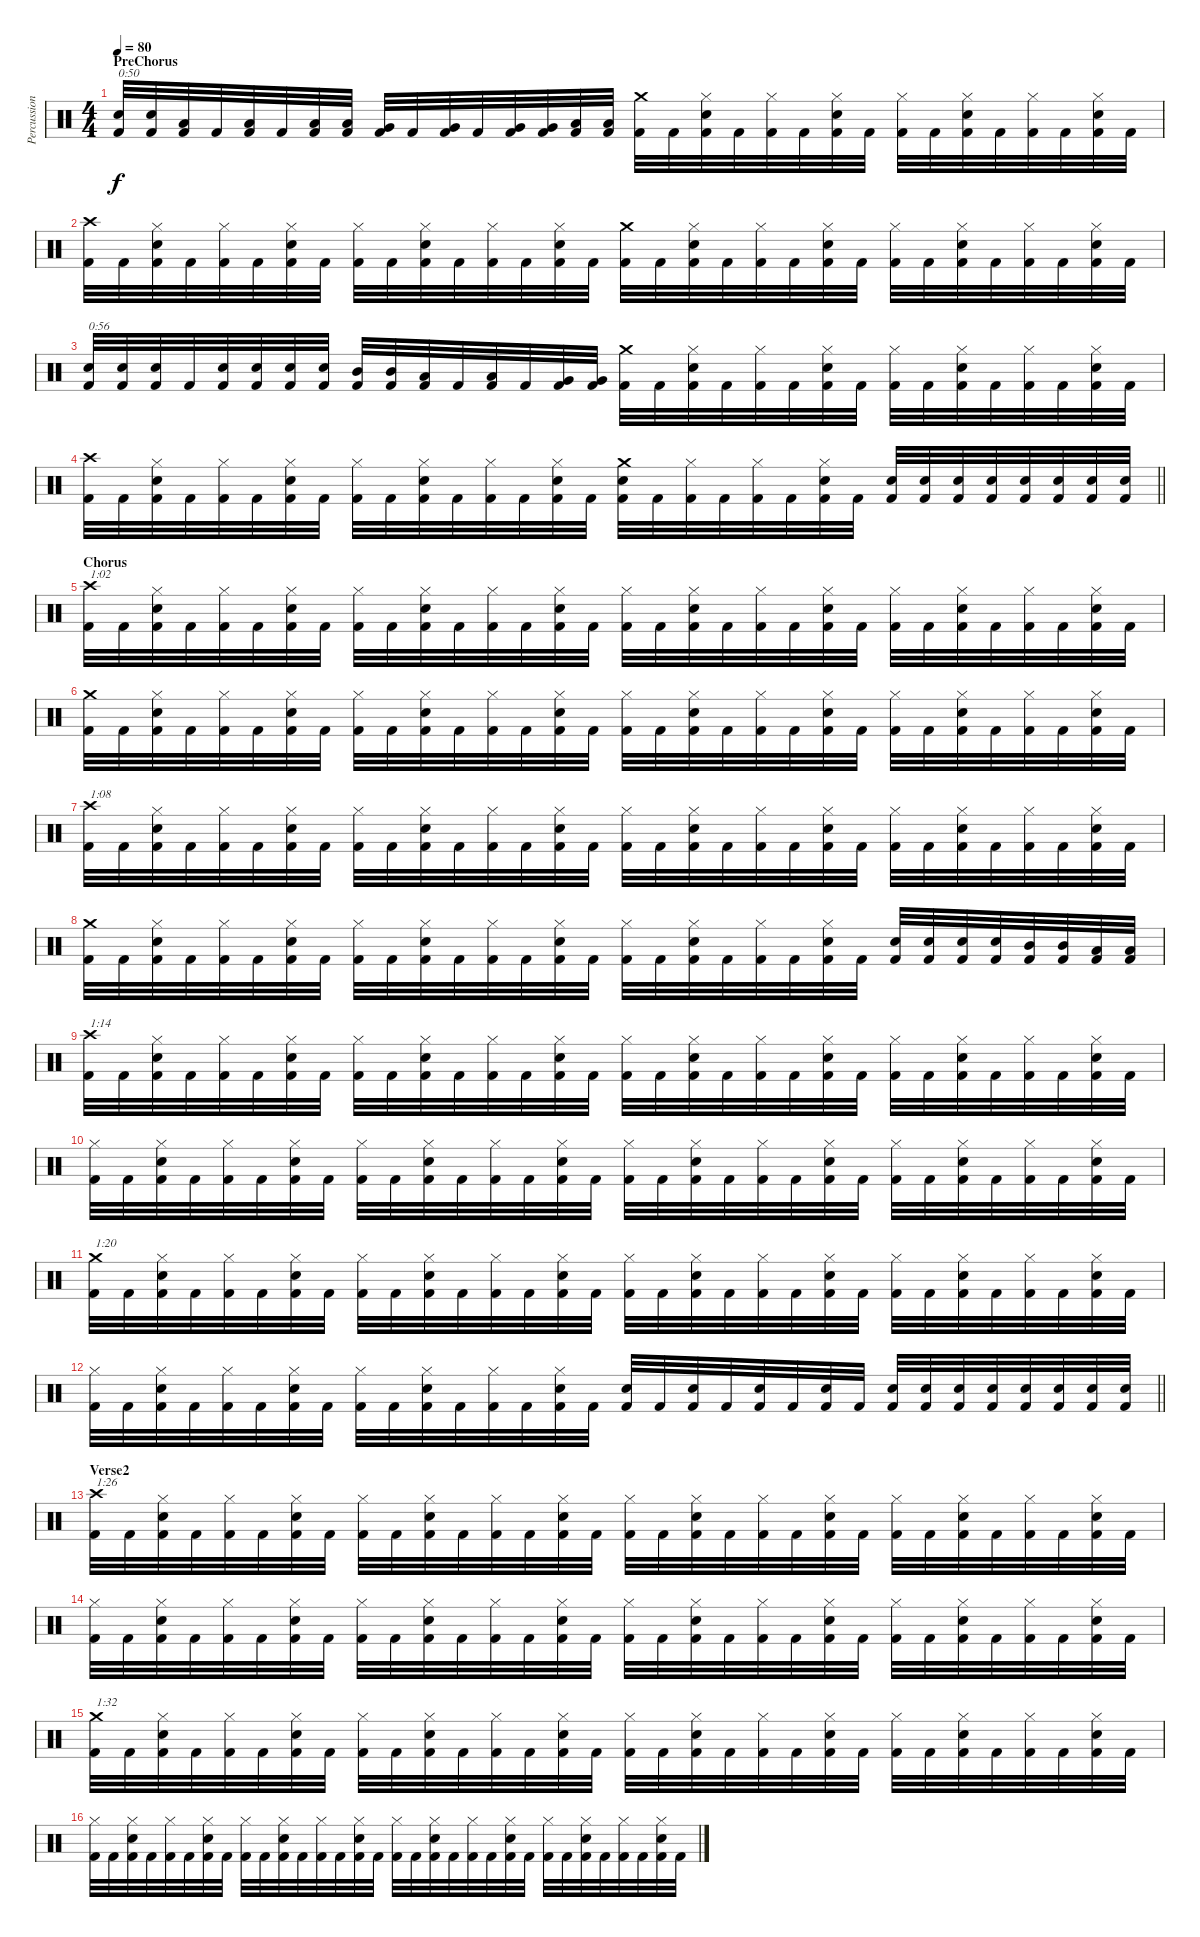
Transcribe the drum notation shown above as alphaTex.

\track ("Percussion" "Percussion") {instrument percussion}
\staff {score}
\articulation defaults
\ts (4 4)
\section ("" "PreChorus")
\tempo 80
\clef neutral
\ks c
("Snare (hit) 2" "Kick (hit) 2").32{txt "0:50" dy f} ("Snare (hit) 2" "Kick (hit) 2").32 ("Low Tom (hit)" "Kick (hit) 2").32 "Kick (hit) 2".32 ("Low Tom (hit)" "Kick (hit) 2").32 "Kick (hit) 2".32 ("Low Tom (hit)" "Kick (hit) 2").32 ("Low Tom (hit)" "Kick (hit) 2").32 ("Very Low Tom (hit)" "Kick (hit) 2").32 "Kick (hit) 2".32 ("Very Low Tom (hit)" "Kick (hit) 2").32 "Kick (hit) 2".32 ("Very Low Tom (hit)" "Kick (hit) 2").32 ("Very Low Tom (hit)" "Kick (hit) 2").32 ("Low Floor Tom (hit)" "Kick (hit) 2").32 ("Low Floor Tom (hit)" "Kick (hit) 2").32 ("Crash medium (hit)" "Kick (hit) 2").32 "Kick (hit) 2".32 ("Hi-Hat (closed)" "Snare (hit) 2" "Kick (hit) 2").32 "Kick (hit) 2".32 ("Hi-Hat (closed)" "Kick (hit) 2").32 "Kick (hit) 2".32 ("Hi-Hat (closed)" "Snare (hit) 2" "Kick (hit) 2").32 "Kick (hit) 2".32 ("Hi-Hat (closed)" "Kick (hit) 2").32 "Kick (hit) 2".32 ("Hi-Hat (closed)" "Snare (hit) 2" "Kick (hit) 2").32 "Kick (hit) 2".32 ("Hi-Hat (closed)" "Kick (hit) 2").32 "Kick (hit) 2".32 ("Hi-Hat (closed)" "Snare (hit) 2" "Kick (hit) 2").32 "Kick (hit) 2".32 |
("Crash high (hit)" "Kick (hit) 2").32 "Kick (hit) 2".32 ("Hi-Hat (closed)" "Snare (hit) 2" "Kick (hit) 2").32 "Kick (hit) 2".32 ("Hi-Hat (closed)" "Kick (hit) 2").32 "Kick (hit) 2".32 ("Hi-Hat (closed)" "Snare (hit) 2" "Kick (hit) 2").32 "Kick (hit) 2".32 ("Hi-Hat (closed)" "Kick (hit) 2").32 "Kick (hit) 2".32 ("Hi-Hat (closed)" "Snare (hit) 2" "Kick (hit) 2").32 "Kick (hit) 2".32 ("Hi-Hat (closed)" "Kick (hit) 2").32 "Kick (hit) 2".32 ("Hi-Hat (closed)" "Snare (hit) 2" "Kick (hit) 2").32 "Kick (hit) 2".32 ("Crash medium (hit)" "Kick (hit) 2").32 "Kick (hit) 2".32 ("Hi-Hat (closed)" "Snare (hit) 2" "Kick (hit) 2").32 "Kick (hit) 2".32 ("Hi-Hat (closed)" "Kick (hit) 2").32 "Kick (hit) 2".32 ("Hi-Hat (closed)" "Snare (hit) 2" "Kick (hit) 2").32 "Kick (hit) 2".32 ("Hi-Hat (closed)" "Kick (hit) 2").32 "Kick (hit) 2".32 ("Hi-Hat (closed)" "Snare (hit) 2" "Kick (hit) 2").32 "Kick (hit) 2".32 ("Hi-Hat (closed)" "Kick (hit) 2").32 "Kick (hit) 2".32 ("Hi-Hat (closed)" "Snare (hit) 2" "Kick (hit) 2").32 "Kick (hit) 2".32 |
("Snare (hit) 2" "Kick (hit) 2").32{txt "0:56"} ("Snare (hit) 2" "Kick (hit) 2").32 ("Snare (hit) 2" "Kick (hit) 2").32 "Kick (hit) 2".32 ("Snare (hit) 2" "Kick (hit) 2").32 ("Snare (hit) 2" "Kick (hit) 2").32 ("Snare (hit) 2" "Kick (hit) 2").32 ("Snare (hit) 2" "Kick (hit) 2").32 ("Mid Tom (hit)" "Kick (hit) 2").32 ("Mid Tom (hit)" "Kick (hit) 2").32 ("Low Tom (hit)" "Kick (hit) 2").32 "Kick (hit) 2".32 ("Low Tom (hit)" "Kick (hit) 2").32 "Kick (hit) 2".32 ("Very Low Tom (hit)" "Kick (hit) 2").32 ("Very Low Tom (hit)" "Kick (hit) 2").32 ("Crash medium (hit)" "Kick (hit) 2").32 "Kick (hit) 2".32 ("Hi-Hat (closed)" "Snare (hit) 2" "Kick (hit) 2").32 "Kick (hit) 2".32 ("Hi-Hat (closed)" "Kick (hit) 2").32 "Kick (hit) 2".32 ("Hi-Hat (closed)" "Snare (hit) 2" "Kick (hit) 2").32 "Kick (hit) 2".32 ("Hi-Hat (closed)" "Kick (hit) 2").32 "Kick (hit) 2".32 ("Hi-Hat (closed)" "Snare (hit) 2" "Kick (hit) 2").32 "Kick (hit) 2".32 ("Hi-Hat (closed)" "Kick (hit) 2").32 "Kick (hit) 2".32 ("Hi-Hat (closed)" "Snare (hit) 2" "Kick (hit) 2").32 "Kick (hit) 2".32 |
\barLineRight lightlight
("Crash high (hit)" "Kick (hit) 2").32 "Kick (hit) 2".32 ("Hi-Hat (closed)" "Snare (hit) 2" "Kick (hit) 2").32 "Kick (hit) 2".32 ("Hi-Hat (closed)" "Kick (hit) 2").32 "Kick (hit) 2".32 ("Hi-Hat (closed)" "Snare (hit) 2" "Kick (hit) 2").32 "Kick (hit) 2".32 ("Hi-Hat (closed)" "Kick (hit) 2").32 "Kick (hit) 2".32 ("Hi-Hat (closed)" "Snare (hit) 2" "Kick (hit) 2").32 "Kick (hit) 2".32 ("Hi-Hat (closed)" "Kick (hit) 2").32 "Kick (hit) 2".32 ("Hi-Hat (closed)" "Snare (hit) 2" "Kick (hit) 2").32 "Kick (hit) 2".32 ("Crash medium (hit)" "Snare (hit) 2" "Kick (hit) 2").32 "Kick (hit) 2".32 ("Hi-Hat (closed)" "Kick (hit) 2").32 "Kick (hit) 2".32 ("Hi-Hat (closed)" "Kick (hit) 2").32 "Kick (hit) 2".32 ("Hi-Hat (closed)" "Snare (hit) 2" "Kick (hit) 2").32 "Kick (hit) 2".32 ("Snare (hit) 2" "Kick (hit) 2").32 ("Snare (hit) 2" "Kick (hit) 2").32 ("Snare (hit) 2" "Kick (hit) 2").32 ("Snare (hit) 2" "Kick (hit) 2").32 ("Snare (hit) 2" "Kick (hit) 2").32 ("Snare (hit) 2" "Kick (hit) 2").32 ("Snare (hit) 2" "Kick (hit) 2").32 ("Snare (hit) 2" "Kick (hit) 2").32 |
\section ("" "Chorus")
("Crash high (hit)" "Kick (hit) 2").32{txt "1:02"} "Kick (hit) 2".32 ("Hi-Hat (closed)" "Snare (hit) 2" "Kick (hit) 2").32 "Kick (hit) 2".32 ("Hi-Hat (closed)" "Kick (hit) 2").32 "Kick (hit) 2".32 ("Hi-Hat (closed)" "Snare (hit) 2" "Kick (hit) 2").32 "Kick (hit) 2".32 ("Hi-Hat (closed)" "Kick (hit) 2").32 "Kick (hit) 2".32 ("Hi-Hat (closed)" "Snare (hit) 2" "Kick (hit) 2").32 "Kick (hit) 2".32 ("Hi-Hat (closed)" "Kick (hit) 2").32 "Kick (hit) 2".32 ("Hi-Hat (closed)" "Snare (hit) 2" "Kick (hit) 2").32 "Kick (hit) 2".32 ("Hi-Hat (closed)" "Kick (hit) 2").32 "Kick (hit) 2".32 ("Hi-Hat (closed)" "Snare (hit) 2" "Kick (hit) 2").32 "Kick (hit) 2".32 ("Hi-Hat (closed)" "Kick (hit) 2").32 "Kick (hit) 2".32 ("Hi-Hat (closed)" "Snare (hit) 2" "Kick (hit) 2").32 "Kick (hit) 2".32 ("Hi-Hat (closed)" "Kick (hit) 2").32 "Kick (hit) 2".32 ("Hi-Hat (closed)" "Snare (hit) 2" "Kick (hit) 2").32 "Kick (hit) 2".32 ("Hi-Hat (closed)" "Kick (hit) 2").32 "Kick (hit) 2".32 ("Hi-Hat (closed)" "Snare (hit) 2" "Kick (hit) 2").32 "Kick (hit) 2".32 |
("Crash medium (hit)" "Kick (hit) 2").32 "Kick (hit) 2".32 ("Hi-Hat (closed)" "Snare (hit) 2" "Kick (hit) 2").32 "Kick (hit) 2".32 ("Hi-Hat (closed)" "Kick (hit) 2").32 "Kick (hit) 2".32 ("Hi-Hat (closed)" "Snare (hit) 2" "Kick (hit) 2").32 "Kick (hit) 2".32 ("Hi-Hat (closed)" "Kick (hit) 2").32 "Kick (hit) 2".32 ("Hi-Hat (closed)" "Snare (hit) 2" "Kick (hit) 2").32 "Kick (hit) 2".32 ("Hi-Hat (closed)" "Kick (hit) 2").32 "Kick (hit) 2".32 ("Hi-Hat (closed)" "Snare (hit) 2" "Kick (hit) 2").32 "Kick (hit) 2".32 ("Hi-Hat (closed)" "Kick (hit) 2").32 "Kick (hit) 2".32 ("Hi-Hat (closed)" "Snare (hit) 2" "Kick (hit) 2").32 "Kick (hit) 2".32 ("Hi-Hat (closed)" "Kick (hit) 2").32 "Kick (hit) 2".32 ("Hi-Hat (closed)" "Snare (hit) 2" "Kick (hit) 2").32 "Kick (hit) 2".32 ("Hi-Hat (closed)" "Kick (hit) 2").32 "Kick (hit) 2".32 ("Hi-Hat (closed)" "Snare (hit) 2" "Kick (hit) 2").32 "Kick (hit) 2".32 ("Hi-Hat (closed)" "Kick (hit) 2").32 "Kick (hit) 2".32 ("Hi-Hat (closed)" "Snare (hit) 2" "Kick (hit) 2").32 "Kick (hit) 2".32 |
("Crash high (hit)" "Kick (hit) 2").32{txt "1:08"} "Kick (hit) 2".32 ("Hi-Hat (closed)" "Snare (hit) 2" "Kick (hit) 2").32 "Kick (hit) 2".32 ("Hi-Hat (closed)" "Kick (hit) 2").32 "Kick (hit) 2".32 ("Hi-Hat (closed)" "Snare (hit) 2" "Kick (hit) 2").32 "Kick (hit) 2".32 ("Hi-Hat (closed)" "Kick (hit) 2").32 "Kick (hit) 2".32 ("Hi-Hat (closed)" "Snare (hit) 2" "Kick (hit) 2").32 "Kick (hit) 2".32 ("Hi-Hat (closed)" "Kick (hit) 2").32 "Kick (hit) 2".32 ("Hi-Hat (closed)" "Snare (hit) 2" "Kick (hit) 2").32 "Kick (hit) 2".32 ("Hi-Hat (closed)" "Kick (hit) 2").32 "Kick (hit) 2".32 ("Hi-Hat (closed)" "Snare (hit) 2" "Kick (hit) 2").32 "Kick (hit) 2".32 ("Hi-Hat (closed)" "Kick (hit) 2").32 "Kick (hit) 2".32 ("Hi-Hat (closed)" "Snare (hit) 2" "Kick (hit) 2").32 "Kick (hit) 2".32 ("Hi-Hat (closed)" "Kick (hit) 2").32 "Kick (hit) 2".32 ("Hi-Hat (closed)" "Snare (hit) 2" "Kick (hit) 2").32 "Kick (hit) 2".32 ("Hi-Hat (closed)" "Kick (hit) 2").32 "Kick (hit) 2".32 ("Hi-Hat (closed)" "Snare (hit) 2" "Kick (hit) 2").32 "Kick (hit) 2".32 |
("Crash medium (hit)" "Kick (hit) 2").32 "Kick (hit) 2".32 ("Hi-Hat (closed)" "Snare (hit) 2" "Kick (hit) 2").32 "Kick (hit) 2".32 ("Hi-Hat (closed)" "Kick (hit) 2").32 "Kick (hit) 2".32 ("Hi-Hat (closed)" "Snare (hit) 2" "Kick (hit) 2").32 "Kick (hit) 2".32 ("Hi-Hat (closed)" "Kick (hit) 2").32 "Kick (hit) 2".32 ("Hi-Hat (closed)" "Snare (hit) 2" "Kick (hit) 2").32 "Kick (hit) 2".32 ("Hi-Hat (closed)" "Kick (hit) 2").32 "Kick (hit) 2".32 ("Hi-Hat (closed)" "Snare (hit) 2" "Kick (hit) 2").32 "Kick (hit) 2".32 ("Hi-Hat (closed)" "Kick (hit) 2").32 "Kick (hit) 2".32 ("Hi-Hat (closed)" "Snare (hit) 2" "Kick (hit) 2").32 "Kick (hit) 2".32 ("Hi-Hat (closed)" "Kick (hit) 2").32 "Kick (hit) 2".32 ("Hi-Hat (closed)" "Snare (hit) 2" "Kick (hit) 2").32 "Kick (hit) 2".32 ("Snare (hit) 2" "Kick (hit) 2").32 ("Snare (hit) 2" "Kick (hit) 2").32 ("Snare (hit) 2" "Kick (hit) 2").32 ("Snare (hit) 2" "Kick (hit) 2").32 ("Mid Tom (hit)" "Kick (hit) 2").32 ("Mid Tom (hit)" "Kick (hit) 2").32 ("Low Tom (hit)" "Kick (hit) 2").32 ("Low Tom (hit)" "Kick (hit) 2").32 |
("Crash high (hit)" "Kick (hit) 2").32{txt "1:14"} "Kick (hit) 2".32 ("Hi-Hat (closed)" "Snare (hit) 2" "Kick (hit) 2").32 "Kick (hit) 2".32 ("Hi-Hat (closed)" "Kick (hit) 2").32 "Kick (hit) 2".32 ("Hi-Hat (closed)" "Snare (hit) 2" "Kick (hit) 2").32 "Kick (hit) 2".32 ("Hi-Hat (closed)" "Kick (hit) 2").32 "Kick (hit) 2".32 ("Hi-Hat (closed)" "Snare (hit) 2" "Kick (hit) 2").32 "Kick (hit) 2".32 ("Hi-Hat (closed)" "Kick (hit) 2").32 "Kick (hit) 2".32 ("Hi-Hat (closed)" "Snare (hit) 2" "Kick (hit) 2").32 "Kick (hit) 2".32 ("Hi-Hat (closed)" "Kick (hit) 2").32 "Kick (hit) 2".32 ("Hi-Hat (closed)" "Snare (hit) 2" "Kick (hit) 2").32 "Kick (hit) 2".32 ("Hi-Hat (closed)" "Kick (hit) 2").32 "Kick (hit) 2".32 ("Hi-Hat (closed)" "Snare (hit) 2" "Kick (hit) 2").32 "Kick (hit) 2".32 ("Hi-Hat (closed)" "Kick (hit) 2").32 "Kick (hit) 2".32 ("Hi-Hat (closed)" "Snare (hit) 2" "Kick (hit) 2").32 "Kick (hit) 2".32 ("Hi-Hat (closed)" "Kick (hit) 2").32 "Kick (hit) 2".32 ("Hi-Hat (closed)" "Snare (hit) 2" "Kick (hit) 2").32 "Kick (hit) 2".32 |
("Hi-Hat (closed)" "Kick (hit) 2").32 "Kick (hit) 2".32 ("Hi-Hat (closed)" "Snare (hit) 2" "Kick (hit) 2").32 "Kick (hit) 2".32 ("Hi-Hat (closed)" "Kick (hit) 2").32 "Kick (hit) 2".32 ("Hi-Hat (closed)" "Snare (hit) 2" "Kick (hit) 2").32 "Kick (hit) 2".32 ("Hi-Hat (closed)" "Kick (hit) 2").32 "Kick (hit) 2".32 ("Hi-Hat (closed)" "Snare (hit) 2" "Kick (hit) 2").32 "Kick (hit) 2".32 ("Hi-Hat (closed)" "Kick (hit) 2").32 "Kick (hit) 2".32 ("Hi-Hat (closed)" "Snare (hit) 2" "Kick (hit) 2").32 "Kick (hit) 2".32 ("Hi-Hat (closed)" "Kick (hit) 2").32 "Kick (hit) 2".32 ("Hi-Hat (closed)" "Snare (hit) 2" "Kick (hit) 2").32 "Kick (hit) 2".32 ("Hi-Hat (closed)" "Kick (hit) 2").32 "Kick (hit) 2".32 ("Hi-Hat (closed)" "Snare (hit) 2" "Kick (hit) 2").32 "Kick (hit) 2".32 ("Hi-Hat (closed)" "Kick (hit) 2").32 "Kick (hit) 2".32 ("Hi-Hat (closed)" "Snare (hit) 2" "Kick (hit) 2").32 "Kick (hit) 2".32 ("Hi-Hat (closed)" "Kick (hit) 2").32 "Kick (hit) 2".32 ("Hi-Hat (closed)" "Snare (hit) 2" "Kick (hit) 2").32 "Kick (hit) 2".32 |
("Crash medium (hit)" "Kick (hit) 2").32{txt "1:20"} "Kick (hit) 2".32 ("Hi-Hat (closed)" "Snare (hit) 2" "Kick (hit) 2").32 "Kick (hit) 2".32 ("Hi-Hat (closed)" "Kick (hit) 2").32 "Kick (hit) 2".32 ("Hi-Hat (closed)" "Snare (hit) 2" "Kick (hit) 2").32 "Kick (hit) 2".32 ("Hi-Hat (closed)" "Kick (hit) 2").32 "Kick (hit) 2".32 ("Hi-Hat (closed)" "Snare (hit) 2" "Kick (hit) 2").32 "Kick (hit) 2".32 ("Hi-Hat (closed)" "Kick (hit) 2").32 "Kick (hit) 2".32 ("Hi-Hat (closed)" "Snare (hit) 2" "Kick (hit) 2").32 "Kick (hit) 2".32 ("Hi-Hat (closed)" "Kick (hit) 2").32 "Kick (hit) 2".32 ("Hi-Hat (closed)" "Snare (hit) 2" "Kick (hit) 2").32 "Kick (hit) 2".32 ("Hi-Hat (closed)" "Kick (hit) 2").32 "Kick (hit) 2".32 ("Hi-Hat (closed)" "Snare (hit) 2" "Kick (hit) 2").32 "Kick (hit) 2".32 ("Hi-Hat (closed)" "Kick (hit) 2").32 "Kick (hit) 2".32 ("Hi-Hat (closed)" "Snare (hit) 2" "Kick (hit) 2").32 "Kick (hit) 2".32 ("Hi-Hat (closed)" "Kick (hit) 2").32 "Kick (hit) 2".32 ("Hi-Hat (closed)" "Snare (hit) 2" "Kick (hit) 2").32 "Kick (hit) 2".32 |
\barLineRight lightlight
("Hi-Hat (closed)" "Kick (hit) 2").32 "Kick (hit) 2".32 ("Hi-Hat (closed)" "Snare (hit) 2" "Kick (hit) 2").32 "Kick (hit) 2".32 ("Hi-Hat (closed)" "Kick (hit) 2").32 "Kick (hit) 2".32 ("Hi-Hat (closed)" "Snare (hit) 2" "Kick (hit) 2").32 "Kick (hit) 2".32 ("Hi-Hat (closed)" "Kick (hit) 2").32 "Kick (hit) 2".32 ("Hi-Hat (closed)" "Snare (hit) 2" "Kick (hit) 2").32 "Kick (hit) 2".32 ("Hi-Hat (closed)" "Kick (hit) 2").32 "Kick (hit) 2".32 ("Hi-Hat (closed)" "Snare (hit) 2" "Kick (hit) 2").32 "Kick (hit) 2".32 ("Snare (hit) 2" "Kick (hit) 2").32 "Kick (hit) 2".32 ("Snare (hit) 2" "Kick (hit) 2").32 "Kick (hit) 2".32 ("Snare (hit) 2" "Kick (hit) 2").32 "Kick (hit) 2".32 ("Snare (hit) 2" "Kick (hit) 2").32 "Kick (hit) 2".32 ("Snare (hit) 2" "Kick (hit) 2").32 ("Snare (hit) 2" "Kick (hit) 2").32 ("Snare (hit) 2" "Kick (hit) 2").32 ("Snare (hit) 2" "Kick (hit) 2").32 ("Snare (hit) 2" "Kick (hit) 2").32 ("Snare (hit) 2" "Kick (hit) 2").32 ("Snare (hit) 2" "Kick (hit) 2").32 ("Snare (hit) 2" "Kick (hit) 2").32 |
\section ("" "Verse2")
("Crash high (hit)" "Kick (hit) 2").32{txt "1:26"} "Kick (hit) 2".32 ("Hi-Hat (closed)" "Snare (hit) 2" "Kick (hit) 2").32 "Kick (hit) 2".32 ("Hi-Hat (closed)" "Kick (hit) 2").32 "Kick (hit) 2".32 ("Hi-Hat (closed)" "Snare (hit) 2" "Kick (hit) 2").32 "Kick (hit) 2".32 ("Hi-Hat (closed)" "Kick (hit) 2").32 "Kick (hit) 2".32 ("Hi-Hat (closed)" "Snare (hit) 2" "Kick (hit) 2").32 "Kick (hit) 2".32 ("Hi-Hat (closed)" "Kick (hit) 2").32 "Kick (hit) 2".32 ("Hi-Hat (closed)" "Snare (hit) 2" "Kick (hit) 2").32 "Kick (hit) 2".32 ("Hi-Hat (closed)" "Kick (hit) 2").32 "Kick (hit) 2".32 ("Hi-Hat (closed)" "Snare (hit) 2" "Kick (hit) 2").32 "Kick (hit) 2".32 ("Hi-Hat (closed)" "Kick (hit) 2").32 "Kick (hit) 2".32 ("Hi-Hat (closed)" "Snare (hit) 2" "Kick (hit) 2").32 "Kick (hit) 2".32 ("Hi-Hat (closed)" "Kick (hit) 2").32 "Kick (hit) 2".32 ("Hi-Hat (closed)" "Snare (hit) 2" "Kick (hit) 2").32 "Kick (hit) 2".32 ("Hi-Hat (closed)" "Kick (hit) 2").32 "Kick (hit) 2".32 ("Hi-Hat (closed)" "Snare (hit) 2" "Kick (hit) 2").32 "Kick (hit) 2".32 |
("Hi-Hat (closed)" "Kick (hit) 2").32 "Kick (hit) 2".32 ("Hi-Hat (closed)" "Snare (hit) 2" "Kick (hit) 2").32 "Kick (hit) 2".32 ("Hi-Hat (closed)" "Kick (hit) 2").32 "Kick (hit) 2".32 ("Hi-Hat (closed)" "Snare (hit) 2" "Kick (hit) 2").32 "Kick (hit) 2".32 ("Hi-Hat (closed)" "Kick (hit) 2").32 "Kick (hit) 2".32 ("Hi-Hat (closed)" "Snare (hit) 2" "Kick (hit) 2").32 "Kick (hit) 2".32 ("Hi-Hat (closed)" "Kick (hit) 2").32 "Kick (hit) 2".32 ("Hi-Hat (closed)" "Snare (hit) 2" "Kick (hit) 2").32 "Kick (hit) 2".32 ("Hi-Hat (closed)" "Kick (hit) 2").32 "Kick (hit) 2".32 ("Hi-Hat (closed)" "Snare (hit) 2" "Kick (hit) 2").32 "Kick (hit) 2".32 ("Hi-Hat (closed)" "Kick (hit) 2").32 "Kick (hit) 2".32 ("Hi-Hat (closed)" "Snare (hit) 2" "Kick (hit) 2").32 "Kick (hit) 2".32 ("Hi-Hat (closed)" "Kick (hit) 2").32 "Kick (hit) 2".32 ("Hi-Hat (closed)" "Snare (hit) 2" "Kick (hit) 2").32 "Kick (hit) 2".32 ("Hi-Hat (closed)" "Kick (hit) 2").32 "Kick (hit) 2".32 ("Hi-Hat (closed)" "Snare (hit) 2" "Kick (hit) 2").32 "Kick (hit) 2".32 |
("Crash medium (hit)" "Kick (hit) 2").32{txt "1:32"} "Kick (hit) 2".32 ("Hi-Hat (closed)" "Snare (hit) 2" "Kick (hit) 2").32 "Kick (hit) 2".32 ("Hi-Hat (closed)" "Kick (hit) 2").32 "Kick (hit) 2".32 ("Hi-Hat (closed)" "Snare (hit) 2" "Kick (hit) 2").32 "Kick (hit) 2".32 ("Hi-Hat (closed)" "Kick (hit) 2").32 "Kick (hit) 2".32 ("Hi-Hat (closed)" "Snare (hit) 2" "Kick (hit) 2").32 "Kick (hit) 2".32 ("Hi-Hat (closed)" "Kick (hit) 2").32 "Kick (hit) 2".32 ("Hi-Hat (closed)" "Snare (hit) 2" "Kick (hit) 2").32 "Kick (hit) 2".32 ("Hi-Hat (closed)" "Kick (hit) 2").32 "Kick (hit) 2".32 ("Hi-Hat (closed)" "Snare (hit) 2" "Kick (hit) 2").32 "Kick (hit) 2".32 ("Hi-Hat (closed)" "Kick (hit) 2").32 "Kick (hit) 2".32 ("Hi-Hat (closed)" "Snare (hit) 2" "Kick (hit) 2").32 "Kick (hit) 2".32 ("Hi-Hat (closed)" "Kick (hit) 2").32 "Kick (hit) 2".32 ("Hi-Hat (closed)" "Snare (hit) 2" "Kick (hit) 2").32 "Kick (hit) 2".32 ("Hi-Hat (closed)" "Kick (hit) 2").32 "Kick (hit) 2".32 ("Hi-Hat (closed)" "Snare (hit) 2" "Kick (hit) 2").32 "Kick (hit) 2".32 |
("Hi-Hat (closed)" "Kick (hit) 2").32 "Kick (hit) 2".32 ("Hi-Hat (closed)" "Snare (hit) 2" "Kick (hit) 2").32 "Kick (hit) 2".32 ("Hi-Hat (closed)" "Kick (hit) 2").32 "Kick (hit) 2".32 ("Hi-Hat (closed)" "Snare (hit) 2" "Kick (hit) 2").32 "Kick (hit) 2".32 ("Hi-Hat (closed)" "Kick (hit) 2").32 "Kick (hit) 2".32 ("Hi-Hat (closed)" "Snare (hit) 2" "Kick (hit) 2").32 "Kick (hit) 2".32 ("Hi-Hat (closed)" "Kick (hit) 2").32 "Kick (hit) 2".32 ("Hi-Hat (closed)" "Snare (hit) 2" "Kick (hit) 2").32 "Kick (hit) 2".32 ("Hi-Hat (closed)" "Kick (hit) 2").32 "Kick (hit) 2".32 ("Hi-Hat (closed)" "Snare (hit) 2" "Kick (hit) 2").32 "Kick (hit) 2".32 ("Hi-Hat (closed)" "Kick (hit) 2").32 "Kick (hit) 2".32 ("Hi-Hat (closed)" "Snare (hit) 2" "Kick (hit) 2").32 "Kick (hit) 2".32 ("Hi-Hat (closed)" "Kick (hit) 2").32 "Kick (hit) 2".32 ("Hi-Hat (closed)" "Snare (hit) 2" "Kick (hit) 2").32 "Kick (hit) 2".32 ("Hi-Hat (closed)" "Kick (hit) 2").32 "Kick (hit) 2".32 ("Hi-Hat (closed)" "Snare (hit) 2" "Kick (hit) 2").32 "Kick (hit) 2".32
